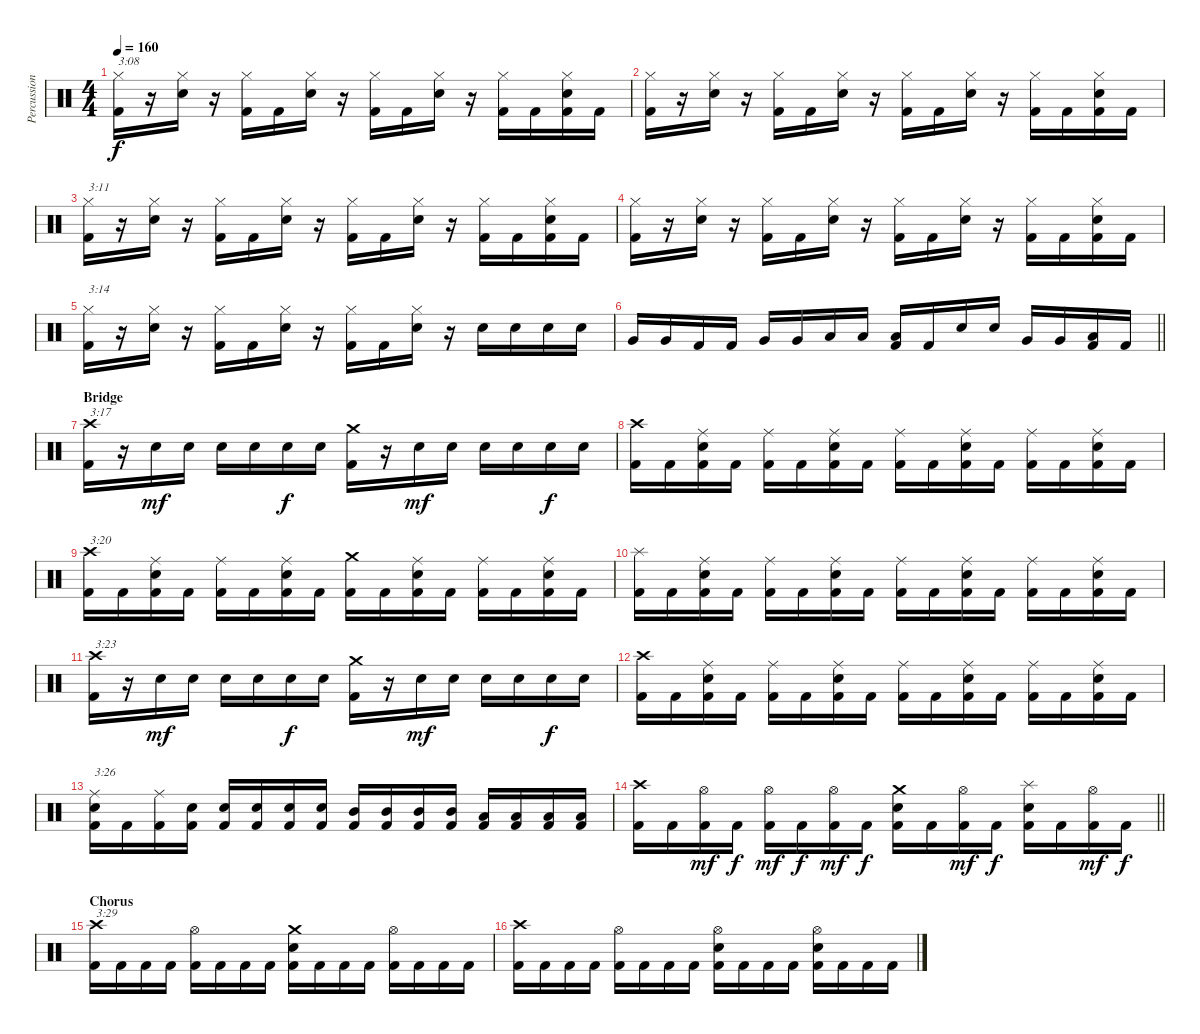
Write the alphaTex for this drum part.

\track ("Percussion" "Percussion") {instrument percussion}
\staff {score}
\articulation defaults
\ts (4 4)
\tempo 160
\clef neutral
\ks c
("Hi-Hat (closed)" "Kick (hit) 2").16{txt "3:08" dy f} r.16 ("Hi-Hat (closed)" "Electric Snare (hit)").16 r.16 ("Hi-Hat (closed)" "Kick (hit) 2").16 "Kick (hit) 2".16 ("Hi-Hat (closed)" "Electric Snare (hit)").16 r.16 ("Hi-Hat (closed)" "Kick (hit) 2").16 "Kick (hit) 2".16 ("Hi-Hat (closed)" "Electric Snare (hit)").16 r.16 ("Hi-Hat (closed)" "Kick (hit) 2").16 "Kick (hit) 2".16 ("Hi-Hat (closed)" "Electric Snare (hit)" "Kick (hit) 2").16 "Kick (hit) 2".16 |
("Hi-Hat (closed)" "Kick (hit) 2").16 r.16 ("Hi-Hat (closed)" "Electric Snare (hit)").16 r.16 ("Hi-Hat (closed)" "Kick (hit) 2").16 "Kick (hit) 2".16 ("Hi-Hat (closed)" "Electric Snare (hit)").16 r.16 ("Hi-Hat (closed)" "Kick (hit) 2").16 "Kick (hit) 2".16 ("Hi-Hat (closed)" "Electric Snare (hit)").16 r.16 ("Hi-Hat (closed)" "Kick (hit) 2").16 "Kick (hit) 2".16 ("Hi-Hat (closed)" "Electric Snare (hit)" "Kick (hit) 2").16 "Kick (hit) 2".16 |
("Hi-Hat (closed)" "Kick (hit) 2").16{txt "3:11"} r.16 ("Hi-Hat (closed)" "Electric Snare (hit)").16 r.16 ("Hi-Hat (closed)" "Kick (hit) 2").16 "Kick (hit) 2".16 ("Hi-Hat (closed)" "Electric Snare (hit)").16 r.16 ("Hi-Hat (closed)" "Kick (hit) 2").16 "Kick (hit) 2".16 ("Hi-Hat (closed)" "Electric Snare (hit)").16 r.16 ("Hi-Hat (closed)" "Kick (hit) 2").16 "Kick (hit) 2".16 ("Hi-Hat (closed)" "Electric Snare (hit)" "Kick (hit) 2").16 "Kick (hit) 2".16 |
("Hi-Hat (closed)" "Kick (hit) 2").16 r.16 ("Hi-Hat (closed)" "Electric Snare (hit)").16 r.16 ("Hi-Hat (closed)" "Kick (hit) 2").16 "Kick (hit) 2".16 ("Hi-Hat (closed)" "Electric Snare (hit)").16 r.16 ("Hi-Hat (closed)" "Kick (hit) 2").16 "Kick (hit) 2".16 ("Hi-Hat (closed)" "Electric Snare (hit)").16 r.16 ("Hi-Hat (closed)" "Kick (hit) 2").16 "Kick (hit) 2".16 ("Hi-Hat (closed)" "Electric Snare (hit)" "Kick (hit) 2").16 "Kick (hit) 2".16 |
("Hi-Hat (closed)" "Kick (hit) 2").16{txt "3:14"} r.16 ("Hi-Hat (closed)" "Electric Snare (hit)").16 r.16 ("Hi-Hat (closed)" "Kick (hit) 2").16 "Kick (hit) 2".16 ("Hi-Hat (closed)" "Electric Snare (hit)").16 r.16 ("Hi-Hat (closed)" "Kick (hit) 2").16 "Kick (hit) 2".16 ("Hi-Hat (closed)" "Electric Snare (hit)").16 r.16 "Electric Snare (hit)".16 "Electric Snare (hit)".16 "Electric Snare (hit)".16 "Electric Snare (hit)".16 |
\barLineRight lightlight "Very Low Tom (hit)".16 "Very Low Tom (hit)".16 "Kick (hit) 2".16 "Kick (hit) 2".16 "Very Low Tom (hit)".16 "Very Low Tom (hit)".16 "Low Floor Tom (hit)".16 "Low Floor Tom (hit)".16
("Low Floor Tom (hit)" "Kick (hit) 2").16 "Kick (hit) 2".16 "Electric Snare (hit)".16 "Electric Snare (hit)".16 "Very Low Tom (hit)".16 "Very Low Tom (hit)".16 ("Low Floor Tom (hit)" "Kick (hit) 2").16 "Kick (hit) 2".16 |
\section ("" "Bridge")
("Crash high (hit)" "Kick (hit) 2").16{txt "3:17"} r.16 "Electric Snare (hit)".16{dy mf} "Electric Snare (hit)".16 "Electric Snare (hit)".16 "Electric Snare (hit)".16 "Electric Snare (hit)".16{dy f} "Electric Snare (hit)".16 ("Crash medium (hit)" "Kick (hit) 2").16 r.16 "Electric Snare (hit)".16{dy mf} "Electric Snare (hit)".16 "Electric Snare (hit)".16 "Electric Snare (hit)".16 "Electric Snare (hit)".16{dy f} "Electric Snare (hit)".16 |
("Crash high (hit)" "Kick (hit) 2").16 "Kick (hit) 2".16 ("Ride (middle)" "Electric Snare (hit)" "Kick (hit) 2").16 "Kick (hit) 2".16 ("Ride (middle)" "Kick (hit) 2").16 "Kick (hit) 2".16 ("Ride (middle)" "Electric Snare (hit)" "Kick (hit) 2").16 "Kick (hit) 2".16 ("Ride (middle)" "Kick (hit) 2").16 "Kick (hit) 2".16 ("Ride (middle)" "Electric Snare (hit)" "Kick (hit) 2").16 "Kick (hit) 2".16 ("Ride (middle)" "Kick (hit) 2").16 "Kick (hit) 2".16 ("Ride (middle)" "Electric Snare (hit)" "Kick (hit) 2").16 "Kick (hit) 2".16 |
("Crash high (hit)" "Kick (hit) 2").16{txt "3:20"} "Kick (hit) 2".16 ("Ride (middle)" "Electric Snare (hit)" "Kick (hit) 2").16 "Kick (hit) 2".16 ("Ride (middle)" "Kick (hit) 2").16 "Kick (hit) 2".16 ("Ride (middle)" "Electric Snare (hit)" "Kick (hit) 2").16 "Kick (hit) 2".16 ("Crash medium (hit)" "Kick (hit) 2").16 "Kick (hit) 2".16 ("Ride (middle)" "Electric Snare (hit)" "Kick (hit) 2").16 "Kick (hit) 2".16 ("Ride (middle)" "Kick (hit) 2").16 "Kick (hit) 2".16 ("Ride (middle)" "Electric Snare (hit)" "Kick (hit) 2").16 "Kick (hit) 2".16 |
("Splash (hit)" "Kick (hit) 2").16 "Kick (hit) 2".16 ("Ride (middle)" "Electric Snare (hit)" "Kick (hit) 2").16 "Kick (hit) 2".16 ("Ride (middle)" "Kick (hit) 2").16 "Kick (hit) 2".16 ("Ride (middle)" "Electric Snare (hit)" "Kick (hit) 2").16 "Kick (hit) 2".16 ("Ride (middle)" "Kick (hit) 2").16 "Kick (hit) 2".16 ("Ride (middle)" "Electric Snare (hit)" "Kick (hit) 2").16 "Kick (hit) 2".16 ("Ride (middle)" "Kick (hit) 2").16 "Kick (hit) 2".16 ("Ride (middle)" "Electric Snare (hit)" "Kick (hit) 2").16 "Kick (hit) 2".16 |
("Crash high (hit)" "Kick (hit) 2").16{txt "3:23"} r.16 "Electric Snare (hit)".16{dy mf} "Electric Snare (hit)".16 "Electric Snare (hit)".16 "Electric Snare (hit)".16 "Electric Snare (hit)".16{dy f} "Electric Snare (hit)".16 ("Crash medium (hit)" "Kick (hit) 2").16 r.16 "Electric Snare (hit)".16{dy mf} "Electric Snare (hit)".16 "Electric Snare (hit)".16 "Electric Snare (hit)".16 "Electric Snare (hit)".16{dy f} "Electric Snare (hit)".16 |
("Crash high (hit)" "Kick (hit) 2").16 "Kick (hit) 2".16 ("Ride (middle)" "Electric Snare (hit)" "Kick (hit) 2").16 "Kick (hit) 2".16 ("Ride (middle)" "Kick (hit) 2").16 "Kick (hit) 2".16 ("Ride (middle)" "Electric Snare (hit)" "Kick (hit) 2").16 "Kick (hit) 2".16 ("Ride (middle)" "Kick (hit) 2").16 "Kick (hit) 2".16 ("Ride (middle)" "Electric Snare (hit)" "Kick (hit) 2").16 "Kick (hit) 2".16 ("Ride (middle)" "Kick (hit) 2").16 "Kick (hit) 2".16 ("Ride (middle)" "Electric Snare (hit)" "Kick (hit) 2").16 "Kick (hit) 2".16 |
("Ride (middle)" "Electric Snare (hit)" "Kick (hit) 2").16{txt "3:26"} "Kick (hit) 2".16 ("Ride (middle)" "Kick (hit) 2").16 ("Electric Snare (hit)" "Kick (hit) 2").16 ("Electric Snare (hit)" "Kick (hit) 2").16 ("Electric Snare (hit)" "Kick (hit) 2").16 ("Electric Snare (hit)" "Kick (hit) 2").16 ("Electric Snare (hit)" "Kick (hit) 2").16 ("Mid Tom (hit)" "Kick (hit) 2").16 ("Mid Tom (hit)" "Kick (hit) 2").16 ("Mid Tom (hit)" "Kick (hit) 2").16 ("Mid Tom (hit)" "Kick (hit) 2").16 ("Low Tom (hit)" "Kick (hit) 2").16 ("Low Tom (hit)" "Kick (hit) 2").16 ("Low Tom (hit)" "Kick (hit) 2").16 ("Low Tom (hit)" "Kick (hit) 2").16 |
\barLineRight lightlight
("Crash high (hit)" "Kick (hit) 2").16 "Kick (hit) 2".16 ("Hi-Hat (open)" "Kick (hit) 2").16{dy mf} "Kick (hit) 2".16{dy f} ("Hi-Hat (open)" "Kick (hit) 2").16{dy mf} "Kick (hit) 2".16{dy f} ("Hi-Hat (open)" "Kick (hit) 2").16{dy mf} "Kick (hit) 2".16{dy f} ("Crash medium (hit)" "Electric Snare (hit)" "Kick (hit) 2").16 "Kick (hit) 2".16 ("Hi-Hat (open)" "Kick (hit) 2").16{dy mf} "Kick (hit) 2".16{dy f} ("Splash (hit)" "Electric Snare (hit)" "Kick (hit) 2").16 "Kick (hit) 2".16 ("Hi-Hat (open)" "Kick (hit) 2").16{dy mf} "Kick (hit) 2".16{dy f} |
\section ("" "Chorus")
("Crash high (hit)" "Kick (hit) 2").16{txt "3:29"} "Kick (hit) 2".16 "Kick (hit) 2".16 "Kick (hit) 2".16 ("Hi-Hat (open)" "Kick (hit) 2").16 "Kick (hit) 2".16 "Kick (hit) 2".16 "Kick (hit) 2".16 ("Crash medium (hit)" "Electric Snare (hit)" "Kick (hit) 2").16 "Kick (hit) 2".16 "Kick (hit) 2".16 "Kick (hit) 2".16 ("Hi-Hat (open)" "Kick (hit) 2").16 "Kick (hit) 2".16 "Kick (hit) 2".16 "Kick (hit) 2".16 |
("Crash high (hit)" "Kick (hit) 2").16 "Kick (hit) 2".16 "Kick (hit) 2".16 "Kick (hit) 2".16 ("Hi-Hat (open)" "Kick (hit) 2").16 "Kick (hit) 2".16 "Kick (hit) 2".16 "Kick (hit) 2".16 ("Hi-Hat (open)" "Electric Snare (hit)" "Kick (hit) 2").16 "Kick (hit) 2".16 "Kick (hit) 2".16 "Kick (hit) 2".16 ("Hi-Hat (open)" "Electric Snare (hit)" "Kick (hit) 2").16 "Kick (hit) 2".16 "Kick (hit) 2".16 "Kick (hit) 2".16
